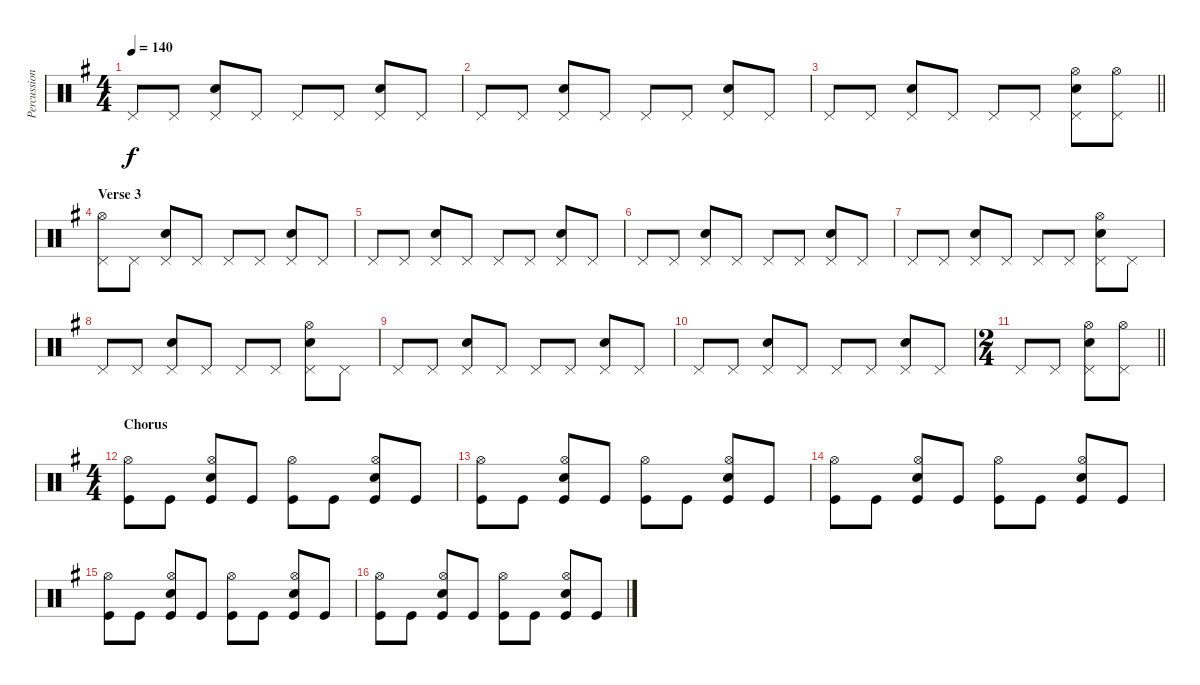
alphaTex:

\track ("Percussion" "Percussion") {instrument percussion}
\staff {score}
\articulation defaults
\ts (4 4)
\tempo 140
\clef neutral
\ks g "Pedal Hi-Hat (hit)".8{dy f} "Pedal Hi-Hat (hit)".8
("Pedal Hi-Hat (hit)" "Snare (hit) 2").8 "Pedal Hi-Hat (hit)".8 "Pedal Hi-Hat (hit)".8 "Pedal Hi-Hat (hit)".8 ("Pedal Hi-Hat (hit)" "Snare (hit) 2").8 "Pedal Hi-Hat (hit)".8 |
"Pedal Hi-Hat (hit)".8 "Pedal Hi-Hat (hit)".8 ("Pedal Hi-Hat (hit)" "Snare (hit) 2").8 "Pedal Hi-Hat (hit)".8 "Pedal Hi-Hat (hit)".8 "Pedal Hi-Hat (hit)".8 ("Pedal Hi-Hat (hit)" "Snare (hit) 2").8 "Pedal Hi-Hat (hit)".8 |
\barLineRight lightlight "Pedal Hi-Hat (hit)".8 "Pedal Hi-Hat (hit)".8
("Pedal Hi-Hat (hit)" "Snare (hit) 2").8 "Pedal Hi-Hat (hit)".8 "Pedal Hi-Hat (hit)".8 "Pedal Hi-Hat (hit)".8 ("Pedal Hi-Hat (hit)" "Hi-Hat (open)" "Snare (hit) 2").8 ("Pedal Hi-Hat (hit)" "Hi-Hat (open)").8 |
\section ("" "Verse 3")
("Pedal Hi-Hat (hit)" "Hi-Hat (open)").8 "Pedal Hi-Hat (hit)".8 ("Pedal Hi-Hat (hit)" "Snare (hit) 2").8 "Pedal Hi-Hat (hit)".8 "Pedal Hi-Hat (hit)".8 "Pedal Hi-Hat (hit)".8 ("Pedal Hi-Hat (hit)" "Snare (hit) 2").8 "Pedal Hi-Hat (hit)".8 |
"Pedal Hi-Hat (hit)".8 "Pedal Hi-Hat (hit)".8 ("Pedal Hi-Hat (hit)" "Snare (hit) 2").8 "Pedal Hi-Hat (hit)".8 "Pedal Hi-Hat (hit)".8 "Pedal Hi-Hat (hit)".8 ("Pedal Hi-Hat (hit)" "Snare (hit) 2").8 "Pedal Hi-Hat (hit)".8 |
"Pedal Hi-Hat (hit)".8 "Pedal Hi-Hat (hit)".8 ("Pedal Hi-Hat (hit)" "Snare (hit) 2").8 "Pedal Hi-Hat (hit)".8 "Pedal Hi-Hat (hit)".8 "Pedal Hi-Hat (hit)".8 ("Pedal Hi-Hat (hit)" "Snare (hit) 2").8 "Pedal Hi-Hat (hit)".8 |
"Pedal Hi-Hat (hit)".8 "Pedal Hi-Hat (hit)".8 ("Pedal Hi-Hat (hit)" "Snare (hit) 2").8 "Pedal Hi-Hat (hit)".8 "Pedal Hi-Hat (hit)".8 "Pedal Hi-Hat (hit)".8 ("Pedal Hi-Hat (hit)" "Hi-Hat (open)" "Snare (hit) 2").8 "Pedal Hi-Hat (hit)".8 |
"Pedal Hi-Hat (hit)".8 "Pedal Hi-Hat (hit)".8 ("Pedal Hi-Hat (hit)" "Snare (hit) 2").8 "Pedal Hi-Hat (hit)".8 "Pedal Hi-Hat (hit)".8 "Pedal Hi-Hat (hit)".8 ("Pedal Hi-Hat (hit)" "Hi-Hat (open)" "Snare (hit) 2").8 "Pedal Hi-Hat (hit)".8 |
"Pedal Hi-Hat (hit)".8 "Pedal Hi-Hat (hit)".8 ("Pedal Hi-Hat (hit)" "Snare (hit) 2").8 "Pedal Hi-Hat (hit)".8 "Pedal Hi-Hat (hit)".8 "Pedal Hi-Hat (hit)".8 ("Pedal Hi-Hat (hit)" "Snare (hit) 2").8 "Pedal Hi-Hat (hit)".8 |
"Pedal Hi-Hat (hit)".8 "Pedal Hi-Hat (hit)".8 ("Pedal Hi-Hat (hit)" "Snare (hit) 2").8 "Pedal Hi-Hat (hit)".8 "Pedal Hi-Hat (hit)".8 "Pedal Hi-Hat (hit)".8 ("Pedal Hi-Hat (hit)" "Snare (hit) 2").8 "Pedal Hi-Hat (hit)".8 |
\ts (2 4)
\barLineRight lightlight "Pedal Hi-Hat (hit)".8 "Pedal Hi-Hat (hit)".8
("Pedal Hi-Hat (hit)" "Hi-Hat (open)" "Snare (hit) 2").8 ("Pedal Hi-Hat (hit)" "Hi-Hat (open)").8 |
\ts (4 4)
\section ("" "Chorus")
("Hi-Hat (open)" "Kick (hit)").8 "Kick (hit)".8 ("Hi-Hat (open)" "Snare (hit) 2" "Kick (hit)").8 "Kick (hit)".8 ("Hi-Hat (open)" "Kick (hit)").8 "Kick (hit)".8 ("Hi-Hat (open)" "Snare (hit) 2" "Kick (hit)").8 "Kick (hit)".8 |
("Hi-Hat (open)" "Kick (hit)").8 "Kick (hit)".8 ("Hi-Hat (open)" "Snare (hit) 2" "Kick (hit)").8 "Kick (hit)".8 ("Hi-Hat (open)" "Kick (hit)").8 "Kick (hit)".8 ("Hi-Hat (open)" "Snare (hit) 2" "Kick (hit)").8 "Kick (hit)".8 |
("Hi-Hat (open)" "Kick (hit)").8 "Kick (hit)".8 ("Hi-Hat (open)" "Snare (hit) 2" "Kick (hit)").8 "Kick (hit)".8 ("Hi-Hat (open)" "Kick (hit)").8 "Kick (hit)".8 ("Hi-Hat (open)" "Snare (hit) 2" "Kick (hit)").8 "Kick (hit)".8 |
("Hi-Hat (open)" "Kick (hit)").8 "Kick (hit)".8 ("Hi-Hat (open)" "Snare (hit) 2" "Kick (hit)").8 "Kick (hit)".8 ("Hi-Hat (open)" "Kick (hit)").8 "Kick (hit)".8 ("Hi-Hat (open)" "Snare (hit) 2" "Kick (hit)").8 "Kick (hit)".8 |
("Hi-Hat (open)" "Kick (hit)").8 "Kick (hit)".8 ("Hi-Hat (open)" "Snare (hit) 2" "Kick (hit)").8 "Kick (hit)".8 ("Hi-Hat (open)" "Kick (hit)").8 "Kick (hit)".8 ("Hi-Hat (open)" "Snare (hit) 2" "Kick (hit)").8 "Kick (hit)".8
